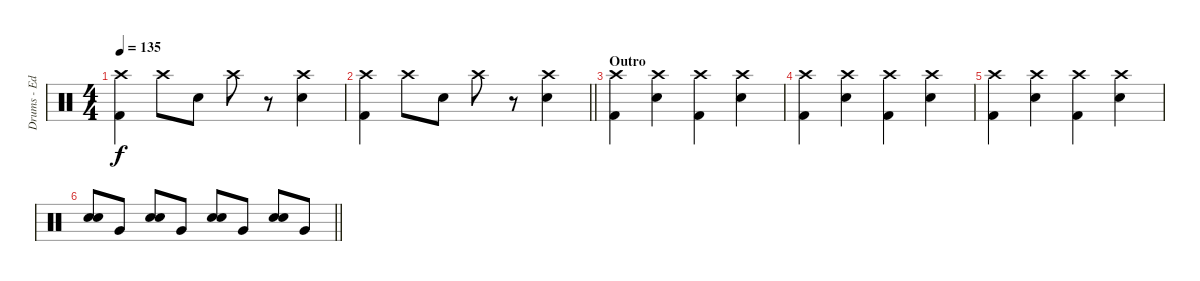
\track ("Drums - Ed Edhus" "Drums - Ed") {instrument percussion bank 127}
\staff {score}
\articulation defaults
\ts (4 4)
\tempo 135
\clef neutral
\ks c
("Crash high (hit)" "Kick (hit) 2").4{dy f} "Crash high (hit)".8 "Snare (hit) 2".8 "Crash high (hit)".8 r.8 ("Crash high (hit)" "Snare (hit) 2").4 |
\barLineRight lightlight
("Crash high (hit)" "Kick (hit) 2").4 "Crash high (hit)".8 "Snare (hit) 2".8 "Crash high (hit)".8 r.8 ("Crash high (hit)" "Snare (hit) 2").4 |
\section ("" "Outro")
("Crash high (hit)" "Kick (hit) 2").4 ("Crash high (hit)" "Snare (hit) 2").4 ("Crash high (hit)" "Kick (hit) 2").4 ("Crash high (hit)" "Snare (hit) 2").4 |
("Crash high (hit)" "Kick (hit) 2").4 ("Crash high (hit)" "Snare (hit) 2").4 ("Crash high (hit)" "Kick (hit) 2").4 ("Crash high (hit)" "Snare (hit) 2").4 |
("Crash high (hit)" "Kick (hit) 2").4 ("Crash high (hit)" "Snare (hit) 2").4 ("Crash high (hit)" "Kick (hit) 2").4 ("Crash high (hit)" "Snare (hit) 2").4 |
\barLineRight lightlight
("Snare (hit) 2" "Snare (hit) 2").8 "Very Low Tom (hit)".8 ("Snare (hit) 2" "Snare (hit) 2").8 "Very Low Tom (hit)".8 ("Snare (hit) 2" "Snare (hit) 2").8 "Very Low Tom (hit)".8 ("Snare (hit) 2" "Snare (hit) 2").8 "Very Low Tom (hit)".8
